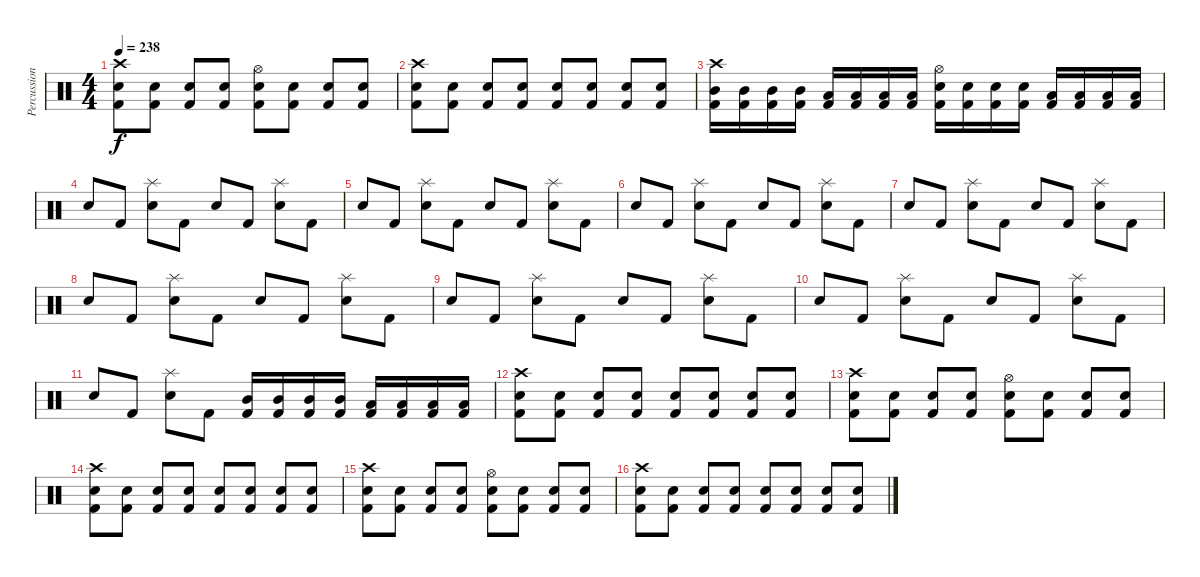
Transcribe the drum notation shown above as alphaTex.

\track ("Percussion" "Percussion") {instrument percussion}
\staff {score}
\articulation defaults
\ts (4 4)
\tempo 238
\clef neutral
\ks c
("Crash high (hit)" "Electric Snare (hit)" "Kick (hit) 2").8{dy f} ("Electric Snare (hit)" "Kick (hit) 2").8 ("Electric Snare (hit)" "Kick (hit) 2").8 ("Electric Snare (hit)" "Kick (hit) 2").8 ("Hi-Hat (open)" "Electric Snare (hit)" "Kick (hit) 2").8 ("Electric Snare (hit)" "Kick (hit) 2").8 ("Electric Snare (hit)" "Kick (hit) 2").8 ("Electric Snare (hit)" "Kick (hit) 2").8 |
("Crash high (hit)" "Electric Snare (hit)" "Kick (hit) 2").8 ("Electric Snare (hit)" "Kick (hit) 2").8 ("Electric Snare (hit)" "Kick (hit) 2").8 ("Electric Snare (hit)" "Kick (hit) 2").8 ("Electric Snare (hit)" "Kick (hit) 2").8 ("Electric Snare (hit)" "Kick (hit) 2").8 ("Electric Snare (hit)" "Kick (hit) 2").8 ("Electric Snare (hit)" "Kick (hit) 2").8 |
("Crash high (hit)" "Mid Tom (hit)" "Kick (hit) 2").16 ("Mid Tom (hit)" "Kick (hit) 2").16 ("Mid Tom (hit)" "Kick (hit) 2").16 ("Mid Tom (hit)" "Kick (hit) 2").16 ("Low Tom (hit)" "Kick (hit) 2").16 ("Low Tom (hit)" "Kick (hit) 2").16 ("Low Tom (hit)" "Kick (hit) 2").16 ("Low Tom (hit)" "Kick (hit) 2").16 ("Hi-Hat (open)" "Electric Snare (hit)" "Kick (hit) 2").16 ("Electric Snare (hit)" "Kick (hit) 2").16 ("Electric Snare (hit)" "Kick (hit) 2").16 ("Electric Snare (hit)" "Kick (hit) 2").16 ("Low Floor Tom (hit)" "Kick (hit) 2").16 ("Low Floor Tom (hit)" "Kick (hit) 2").16 ("Low Floor Tom (hit)" "Kick (hit) 2").16 ("Low Floor Tom (hit)" "Kick (hit) 2").16 |
"Electric Snare (hit)".8 "Kick (hit) 2".8 ("Splash (hit)" "Electric Snare (hit)").8 "Kick (hit) 2".8 "Electric Snare (hit)".8 "Kick (hit) 2".8 ("Splash (hit)" "Electric Snare (hit)").8 "Kick (hit) 2".8 |
"Electric Snare (hit)".8 "Kick (hit) 2".8 ("Splash (hit)" "Electric Snare (hit)").8 "Kick (hit) 2".8 "Electric Snare (hit)".8 "Kick (hit) 2".8 ("Splash (hit)" "Electric Snare (hit)").8 "Kick (hit) 2".8 |
"Electric Snare (hit)".8 "Kick (hit) 2".8 ("Splash (hit)" "Electric Snare (hit)").8 "Kick (hit) 2".8 "Electric Snare (hit)".8 "Kick (hit) 2".8 ("Splash (hit)" "Electric Snare (hit)").8 "Kick (hit) 2".8 |
"Electric Snare (hit)".8 "Kick (hit) 2".8 ("Splash (hit)" "Electric Snare (hit)").8 "Kick (hit) 2".8 "Electric Snare (hit)".8 "Kick (hit) 2".8 ("Splash (hit)" "Electric Snare (hit)").8 "Kick (hit) 2".8 |
"Electric Snare (hit)".8 "Kick (hit) 2".8 ("Splash (hit)" "Electric Snare (hit)").8 "Kick (hit) 2".8 "Electric Snare (hit)".8 "Kick (hit) 2".8 ("Splash (hit)" "Electric Snare (hit)").8 "Kick (hit) 2".8 |
"Electric Snare (hit)".8 "Kick (hit) 2".8 ("Splash (hit)" "Electric Snare (hit)").8 "Kick (hit) 2".8 "Electric Snare (hit)".8 "Kick (hit) 2".8 ("Splash (hit)" "Electric Snare (hit)").8 "Kick (hit) 2".8 |
"Electric Snare (hit)".8 "Kick (hit) 2".8 ("Splash (hit)" "Electric Snare (hit)").8 "Kick (hit) 2".8 "Electric Snare (hit)".8 "Kick (hit) 2".8 ("Splash (hit)" "Electric Snare (hit)").8 "Kick (hit) 2".8 |
"Electric Snare (hit)".8 "Kick (hit) 2".8 ("Splash (hit)" "Electric Snare (hit)").8 "Kick (hit) 2".8 ("Mid Tom (hit)" "Kick (hit) 2").16 ("Mid Tom (hit)" "Kick (hit) 2").16 ("Mid Tom (hit)" "Kick (hit) 2").16 ("Mid Tom (hit)" "Kick (hit) 2").16 ("Low Tom (hit)" "Kick (hit) 2").16 ("Low Tom (hit)" "Kick (hit) 2").16 ("Low Tom (hit)" "Kick (hit) 2").16 ("Low Tom (hit)" "Kick (hit) 2").16 |
("Crash high (hit)" "Electric Snare (hit)" "Kick (hit) 2").8 ("Electric Snare (hit)" "Kick (hit) 2").8 ("Electric Snare (hit)" "Kick (hit) 2").8 ("Electric Snare (hit)" "Kick (hit) 2").8 ("Electric Snare (hit)" "Kick (hit) 2").8 ("Electric Snare (hit)" "Kick (hit) 2").8 ("Electric Snare (hit)" "Kick (hit) 2").8 ("Electric Snare (hit)" "Kick (hit) 2").8 |
("Crash high (hit)" "Electric Snare (hit)" "Kick (hit) 2").8 ("Electric Snare (hit)" "Kick (hit) 2").8 ("Electric Snare (hit)" "Kick (hit) 2").8 ("Electric Snare (hit)" "Kick (hit) 2").8 ("Hi-Hat (open)" "Electric Snare (hit)" "Kick (hit) 2").8 ("Electric Snare (hit)" "Kick (hit) 2").8 ("Electric Snare (hit)" "Kick (hit) 2").8 ("Electric Snare (hit)" "Kick (hit) 2").8 |
("Crash high (hit)" "Electric Snare (hit)" "Kick (hit) 2").8 ("Electric Snare (hit)" "Kick (hit) 2").8 ("Electric Snare (hit)" "Kick (hit) 2").8 ("Electric Snare (hit)" "Kick (hit) 2").8 ("Electric Snare (hit)" "Kick (hit) 2").8 ("Electric Snare (hit)" "Kick (hit) 2").8 ("Electric Snare (hit)" "Kick (hit) 2").8 ("Electric Snare (hit)" "Kick (hit) 2").8 |
("Crash high (hit)" "Electric Snare (hit)" "Kick (hit) 2").8 ("Electric Snare (hit)" "Kick (hit) 2").8 ("Electric Snare (hit)" "Kick (hit) 2").8 ("Electric Snare (hit)" "Kick (hit) 2").8 ("Hi-Hat (open)" "Electric Snare (hit)" "Kick (hit) 2").8 ("Electric Snare (hit)" "Kick (hit) 2").8 ("Electric Snare (hit)" "Kick (hit) 2").8 ("Electric Snare (hit)" "Kick (hit) 2").8 |
("Crash high (hit)" "Electric Snare (hit)" "Kick (hit) 2").8 ("Electric Snare (hit)" "Kick (hit) 2").8 ("Electric Snare (hit)" "Kick (hit) 2").8 ("Electric Snare (hit)" "Kick (hit) 2").8 ("Electric Snare (hit)" "Kick (hit) 2").8 ("Electric Snare (hit)" "Kick (hit) 2").8 ("Electric Snare (hit)" "Kick (hit) 2").8 ("Electric Snare (hit)" "Kick (hit) 2").8
